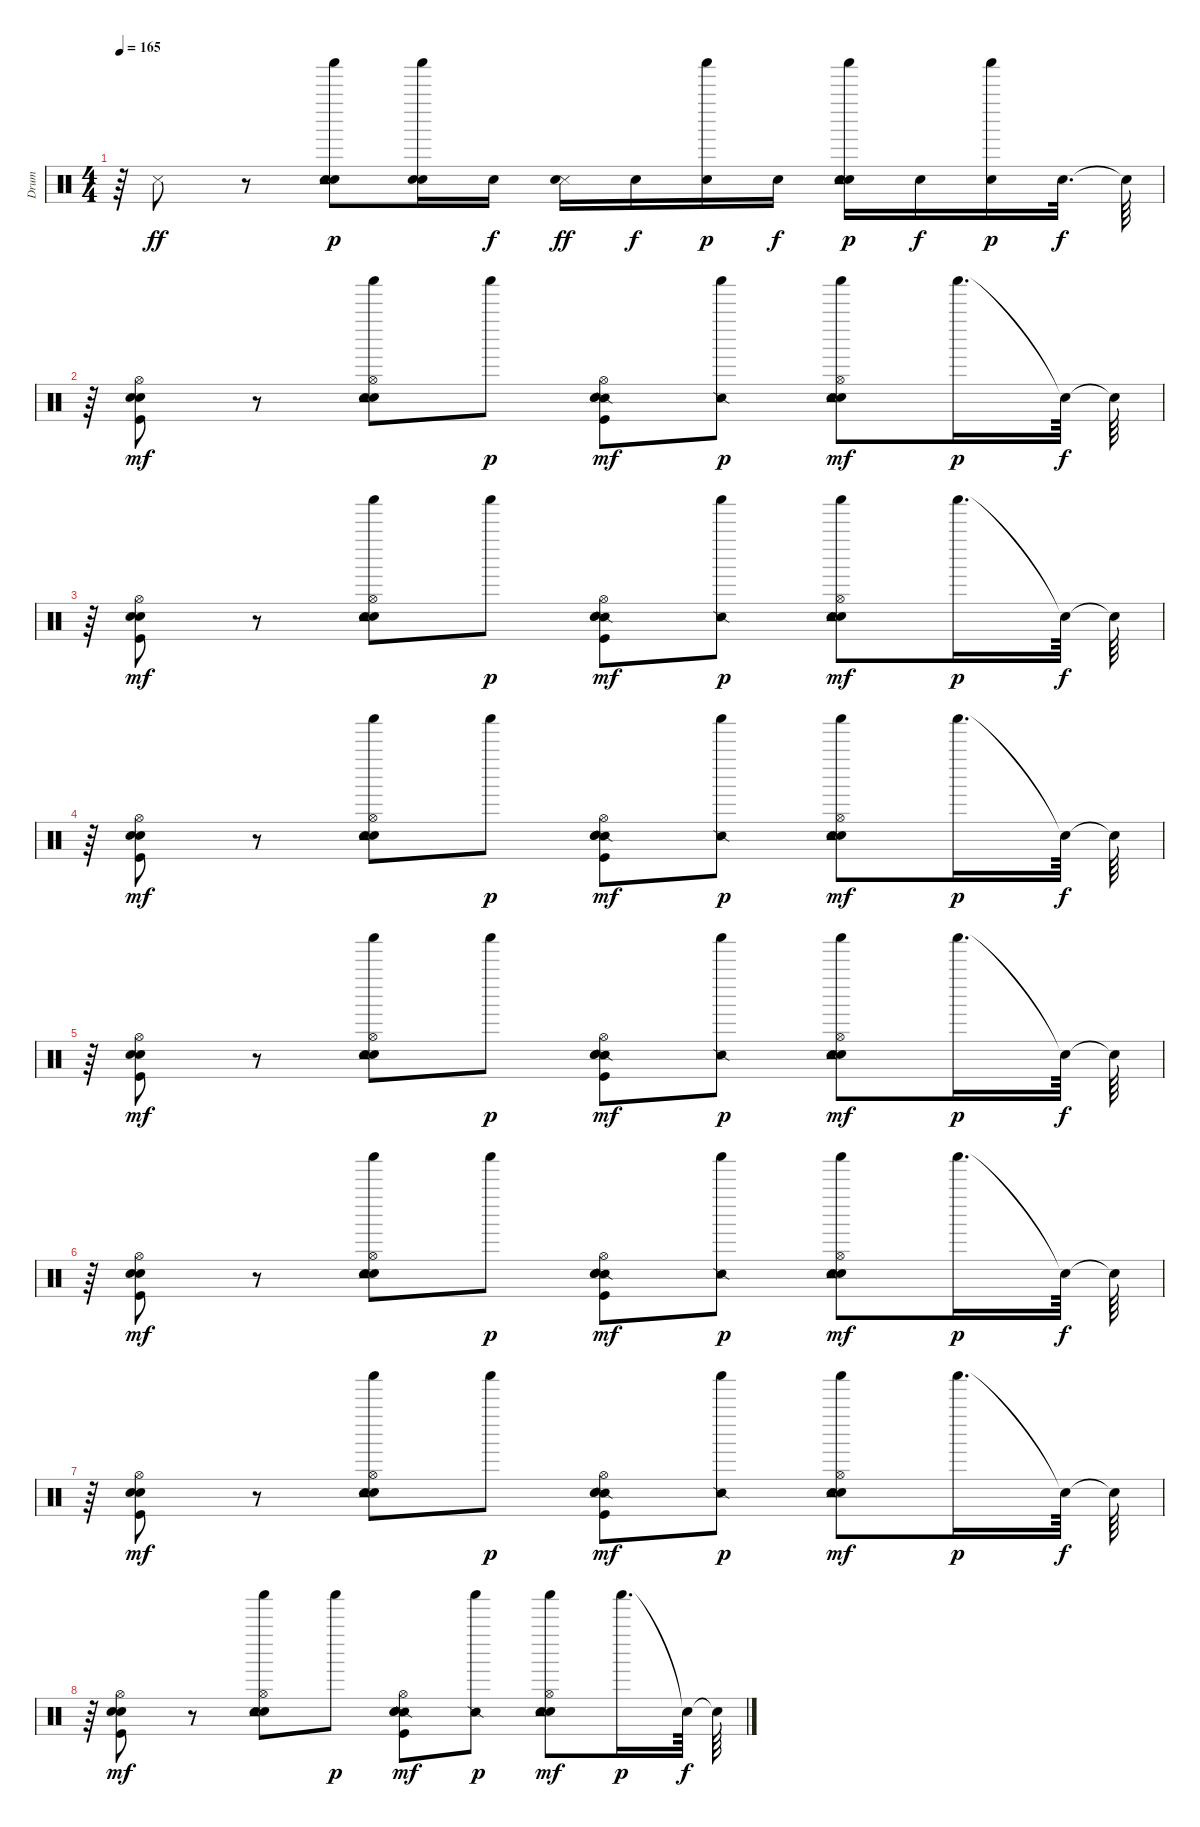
\track ("Drum" "Drum") {instrument percussion}
\staff {score}
\articulation defaults
\ts (4 4)
\tempo 165
\clef neutral
\ks c
r.64{dy f} "Metronome (hit)".8{dy ff} r.8 ("Hand Clap (hit)" "Tambourine (hit)" "Electric Snare (hit)" "Shaker (hit)").8{dy p} ("Hand Clap (hit)" "Shaker (hit)" "Electric Snare (hit)").16 "Electric Snare (hit)".16{dy f} ("Metronome (hit)" "Electric Snare (hit)").16{dy ff} "Electric Snare (hit)".16{dy f} ("Shaker (hit)" "Electric Snare (hit)").16{dy p} "Electric Snare (hit)".16{dy f} ("Hand Clap (hit)" "Tambourine (hit)" "Electric Snare (hit)" "Shaker (hit)").16{dy p} "Electric Snare (hit)".16{dy f} ("Shaker (hit)" "Electric Snare (hit)").16{dy p} "Electric Snare (hit)".32{d dy f} "Snare (hit)"{t}.64 |
r.64 ("Kick (hit)" "Hand Clap (hit)" "Electric Snare (hit)" "Hi-Hat (open)").8{dy mf} r.8 ("Hand Clap (hit)" "Electric Snare (hit)" "Shaker (hit)" "Tambourine (hit)" "Hi-Hat (open)").8 "Shaker (hit)".8{dy p} ("Snare (side stick) 2" "Kick (hit)" "Hand Clap (hit)" "Electric Snare (hit)" "Hi-Hat (open)").8{dy mf} ("Snare (side stick) 2" "Shaker (hit)").8{dy p} ("Hand Clap (hit)" "Tambourine (hit)" "Electric Snare (hit)" "Shaker (hit)" "Hi-Hat (open)").8{dy mf} "Shaker (hit)".16{d dy p} "Snare (hit)"{t}.64{dy f} "Snare (hit)"{t}.64 |
r.64 ("Kick (hit)" "Hand Clap (hit)" "Electric Snare (hit)" "Hi-Hat (open)").8{dy mf} r.8 ("Hand Clap (hit)" "Electric Snare (hit)" "Shaker (hit)" "Tambourine (hit)" "Hi-Hat (open)").8 "Shaker (hit)".8{dy p} ("Snare (side stick) 2" "Kick (hit)" "Hand Clap (hit)" "Electric Snare (hit)" "Hi-Hat (open)").8{dy mf} ("Snare (side stick) 2" "Shaker (hit)").8{dy p} ("Hand Clap (hit)" "Tambourine (hit)" "Electric Snare (hit)" "Shaker (hit)" "Hi-Hat (open)").8{dy mf} "Shaker (hit)".16{d dy p} "Snare (hit)"{t}.64{dy f} "Snare (hit)"{t}.64 |
r.64 ("Kick (hit)" "Hand Clap (hit)" "Electric Snare (hit)" "Hi-Hat (open)").8{dy mf} r.8 ("Hand Clap (hit)" "Electric Snare (hit)" "Shaker (hit)" "Tambourine (hit)" "Hi-Hat (open)").8 "Shaker (hit)".8{dy p} ("Snare (side stick) 2" "Kick (hit)" "Hand Clap (hit)" "Electric Snare (hit)" "Hi-Hat (open)").8{dy mf} ("Snare (side stick) 2" "Shaker (hit)").8{dy p} ("Hand Clap (hit)" "Tambourine (hit)" "Electric Snare (hit)" "Shaker (hit)" "Hi-Hat (open)").8{dy mf} "Shaker (hit)".16{d dy p} "Snare (hit)"{t}.64{dy f} "Snare (hit)"{t}.64 |
r.64 ("Kick (hit)" "Hand Clap (hit)" "Electric Snare (hit)" "Hi-Hat (open)").8{dy mf} r.8 ("Hand Clap (hit)" "Electric Snare (hit)" "Shaker (hit)" "Tambourine (hit)" "Hi-Hat (open)").8 "Shaker (hit)".8{dy p} ("Snare (side stick) 2" "Kick (hit)" "Hand Clap (hit)" "Electric Snare (hit)" "Hi-Hat (open)").8{dy mf} ("Snare (side stick) 2" "Shaker (hit)").8{dy p} ("Hand Clap (hit)" "Tambourine (hit)" "Electric Snare (hit)" "Shaker (hit)" "Hi-Hat (open)").8{dy mf} "Shaker (hit)".16{d dy p} "Snare (hit)"{t}.64{dy f} "Snare (hit)"{t}.64 |
r.64 ("Kick (hit)" "Hand Clap (hit)" "Electric Snare (hit)" "Hi-Hat (open)").8{dy mf} r.8 ("Hand Clap (hit)" "Electric Snare (hit)" "Shaker (hit)" "Tambourine (hit)" "Hi-Hat (open)").8 "Shaker (hit)".8{dy p} ("Snare (side stick) 2" "Kick (hit)" "Hand Clap (hit)" "Electric Snare (hit)" "Hi-Hat (open)").8{dy mf} ("Snare (side stick) 2" "Shaker (hit)").8{dy p} ("Hand Clap (hit)" "Tambourine (hit)" "Electric Snare (hit)" "Shaker (hit)" "Hi-Hat (open)").8{dy mf} "Shaker (hit)".16{d dy p} "Snare (hit)"{t}.64{dy f} "Snare (hit)"{t}.64 |
r.64 ("Kick (hit)" "Hand Clap (hit)" "Electric Snare (hit)" "Hi-Hat (open)").8{dy mf} r.8 ("Hand Clap (hit)" "Electric Snare (hit)" "Shaker (hit)" "Tambourine (hit)" "Hi-Hat (open)").8 "Shaker (hit)".8{dy p} ("Snare (side stick) 2" "Kick (hit)" "Hand Clap (hit)" "Electric Snare (hit)" "Hi-Hat (open)").8{dy mf} ("Snare (side stick) 2" "Shaker (hit)").8{dy p} ("Hand Clap (hit)" "Tambourine (hit)" "Electric Snare (hit)" "Shaker (hit)" "Hi-Hat (open)").8{dy mf} "Shaker (hit)".16{d dy p} "Snare (hit)"{t}.64{dy f} "Snare (hit)"{t}.64 |
r.64 ("Kick (hit)" "Hand Clap (hit)" "Electric Snare (hit)" "Hi-Hat (open)").8{dy mf} r.8 ("Hand Clap (hit)" "Electric Snare (hit)" "Shaker (hit)" "Tambourine (hit)" "Hi-Hat (open)").8 "Shaker (hit)".8{dy p} ("Snare (side stick) 2" "Kick (hit)" "Hand Clap (hit)" "Electric Snare (hit)" "Hi-Hat (open)").8{dy mf} ("Snare (side stick) 2" "Shaker (hit)").8{dy p} ("Hand Clap (hit)" "Tambourine (hit)" "Electric Snare (hit)" "Shaker (hit)" "Hi-Hat (open)").8{dy mf} "Shaker (hit)".16{d dy p} "Snare (hit)"{t}.64{dy f} "Snare (hit)"{t}.64
